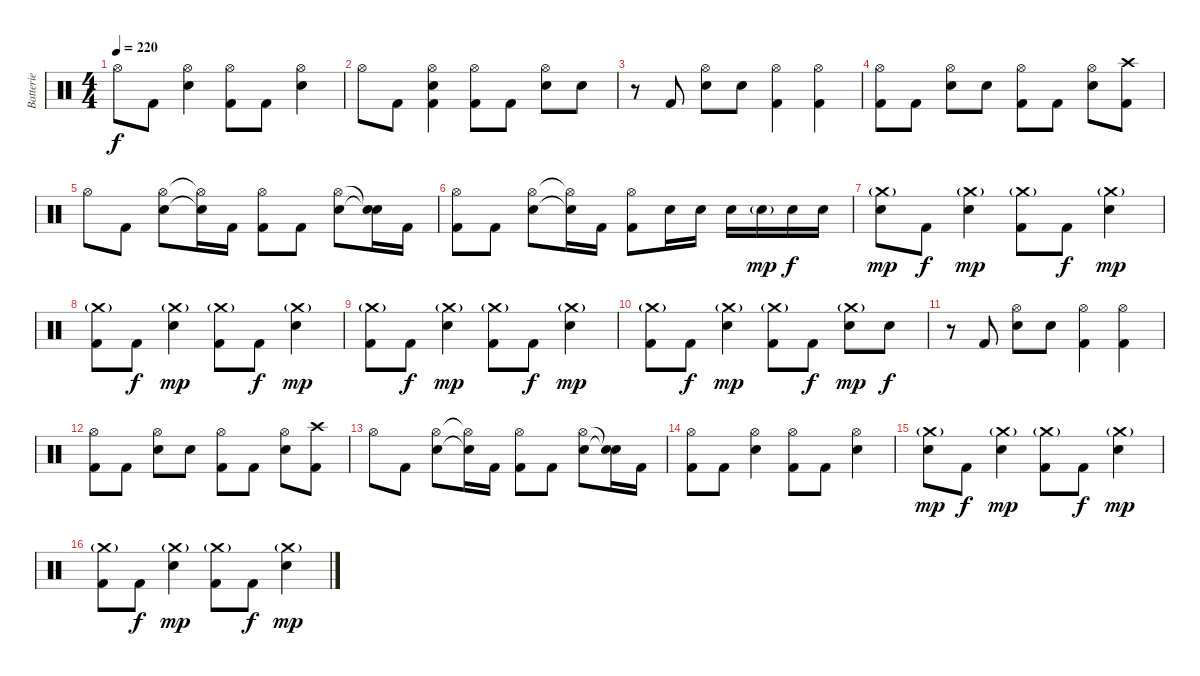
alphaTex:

\track ("Batterie" "Batterie") {instrument percussion}
\staff {score}
\articulation defaults
\ts (4 4)
\tempo 220
\clef neutral
\ks c "Hi-Hat (open)"{t}.8{dy f} "Kick (hit) 2".8
("Hi-Hat (open)" "Electric Snare (hit)").4 ("Hi-Hat (open)" "Kick (hit) 2").8 "Kick (hit) 2".8 ("Hi-Hat (open)" "Electric Snare (hit)").4 |
"Hi-Hat (open)".8 "Kick (hit) 2".8 ("Hi-Hat (open)" "Electric Snare (hit)" "Kick (hit) 2").4 ("Hi-Hat (open)" "Kick (hit) 2").8 "Kick (hit) 2".8 ("Hi-Hat (open)" "Electric Snare (hit)").8 "Electric Snare (hit)".8 |
r.8 "Kick (hit) 2".8 ("Hi-Hat (open)" "Electric Snare (hit)").8 "Electric Snare (hit)".8 ("Hi-Hat (open)" "Kick (hit) 2").4 ("Hi-Hat (open)" "Kick (hit) 2").4 |
("Hi-Hat (open)" "Kick (hit) 2").8 "Kick (hit) 2".8 ("Hi-Hat (open)" "Electric Snare (hit)").8 "Electric Snare (hit)".8 ("Hi-Hat (open)" "Kick (hit) 2").8 "Kick (hit) 2".8 ("Hi-Hat (open)" "Electric Snare (hit)").8 ("Crash high (hit)" "Kick (hit) 2").8 |
"Hi-Hat (open)".8 "Kick (hit) 2".8 ("Hi-Hat (open)" "Electric Snare (hit)").8 ("Hi-Hat (open)"{t} "Snare (hit)"{t}).16 "Kick (hit) 2".16 ("Hi-Hat (open)" "Kick (hit) 2").8 "Kick (hit) 2".8 ("Hi-Hat (open)" "Electric Snare (hit)").8 ("Snare (hit)"{t} "Snare (hit)"{t}).16 "Kick (hit) 2".16 |
("Hi-Hat (open)" "Kick (hit) 2").8 "Kick (hit) 2".8 ("Hi-Hat (open)" "Electric Snare (hit)").8 ("Hi-Hat (open)"{t} "Electric Snare (hit)"{t}).16 "Kick (hit) 2".16 ("Hi-Hat (open)" "Kick (hit) 2").8 "Electric Snare (hit)".16 "Electric Snare (hit)".16 "Electric Snare (hit)".16 "Electric Snare (hit)"{g}.16{dy mp} "Electric Snare (hit)".16{dy f} "Electric Snare (hit)".16 |
("Crash medium (hit)"{g} "Electric Snare (hit)").8{dy mp} "Kick (hit) 2".8{dy f} ("Crash medium (hit)"{g} "Electric Snare (hit)").4{dy mp} ("Crash medium (hit)"{g} "Kick (hit) 2").8 "Kick (hit) 2".8{dy f} ("Crash medium (hit)"{g} "Electric Snare (hit)").4{dy mp} |
("Crash medium (hit)"{g} "Kick (hit) 2").8 "Kick (hit) 2".8{dy f} ("Crash medium (hit)"{g} "Electric Snare (hit)").4{dy mp} ("Crash medium (hit)"{g} "Kick (hit) 2").8 "Kick (hit) 2".8{dy f} ("Crash medium (hit)"{g} "Electric Snare (hit)").4{dy mp} |
("Crash medium (hit)"{g} "Kick (hit) 2").8 "Kick (hit) 2".8{dy f} ("Crash medium (hit)"{g} "Electric Snare (hit)").4{dy mp} ("Crash medium (hit)"{g} "Kick (hit) 2").8 "Kick (hit) 2".8{dy f} ("Crash medium (hit)"{g} "Electric Snare (hit)").4{dy mp} |
("Crash medium (hit)"{g} "Kick (hit) 2").8 "Kick (hit) 2".8{dy f} ("Crash medium (hit)"{g} "Electric Snare (hit)").4{dy mp} ("Crash medium (hit)"{g} "Kick (hit) 2").8 "Kick (hit) 2".8{dy f} ("Crash medium (hit)"{g} "Electric Snare (hit)").8{dy mp} "Electric Snare (hit)".8{dy f} |
r.8 "Kick (hit) 2".8 ("Hi-Hat (open)" "Electric Snare (hit)").8 "Electric Snare (hit)".8 ("Hi-Hat (open)" "Kick (hit) 2").4 ("Hi-Hat (open)" "Kick (hit) 2").4 |
("Hi-Hat (open)" "Kick (hit) 2").8 "Kick (hit) 2".8 ("Hi-Hat (open)" "Electric Snare (hit)").8 "Electric Snare (hit)".8 ("Hi-Hat (open)" "Kick (hit) 2").8 "Kick (hit) 2".8 ("Hi-Hat (open)" "Electric Snare (hit)").8 ("Crash high (hit)" "Kick (hit) 2").8 |
"Hi-Hat (open)".8 "Kick (hit) 2".8 ("Hi-Hat (open)" "Electric Snare (hit)").8 ("Hi-Hat (open)"{t} "Snare (hit)"{t}).16 "Kick (hit) 2".16 ("Hi-Hat (open)" "Kick (hit) 2").8 "Kick (hit) 2".8 ("Hi-Hat (open)" "Electric Snare (hit)").8 ("Snare (hit)"{t} "Snare (hit)"{t}).16 "Kick (hit) 2".16 |
("Hi-Hat (open)" "Kick (hit) 2").8 "Kick (hit) 2".8 ("Hi-Hat (open)" "Electric Snare (hit)").4 ("Hi-Hat (open)" "Kick (hit) 2").8 "Kick (hit) 2".8 ("Hi-Hat (open)" "Electric Snare (hit)").4 |
("Crash medium (hit)"{g} "Electric Snare (hit)").8{dy mp} "Kick (hit) 2".8{dy f} ("Crash medium (hit)"{g} "Electric Snare (hit)").4{dy mp} ("Crash medium (hit)"{g} "Kick (hit) 2").8 "Kick (hit) 2".8{dy f} ("Crash medium (hit)"{g} "Electric Snare (hit)").4{dy mp} |
("Crash medium (hit)"{g} "Kick (hit) 2").8 "Kick (hit) 2".8{dy f} ("Crash medium (hit)"{g} "Electric Snare (hit)").4{dy mp} ("Crash medium (hit)"{g} "Kick (hit) 2").8 "Kick (hit) 2".8{dy f} ("Crash medium (hit)"{g} "Electric Snare (hit)").4{dy mp}
